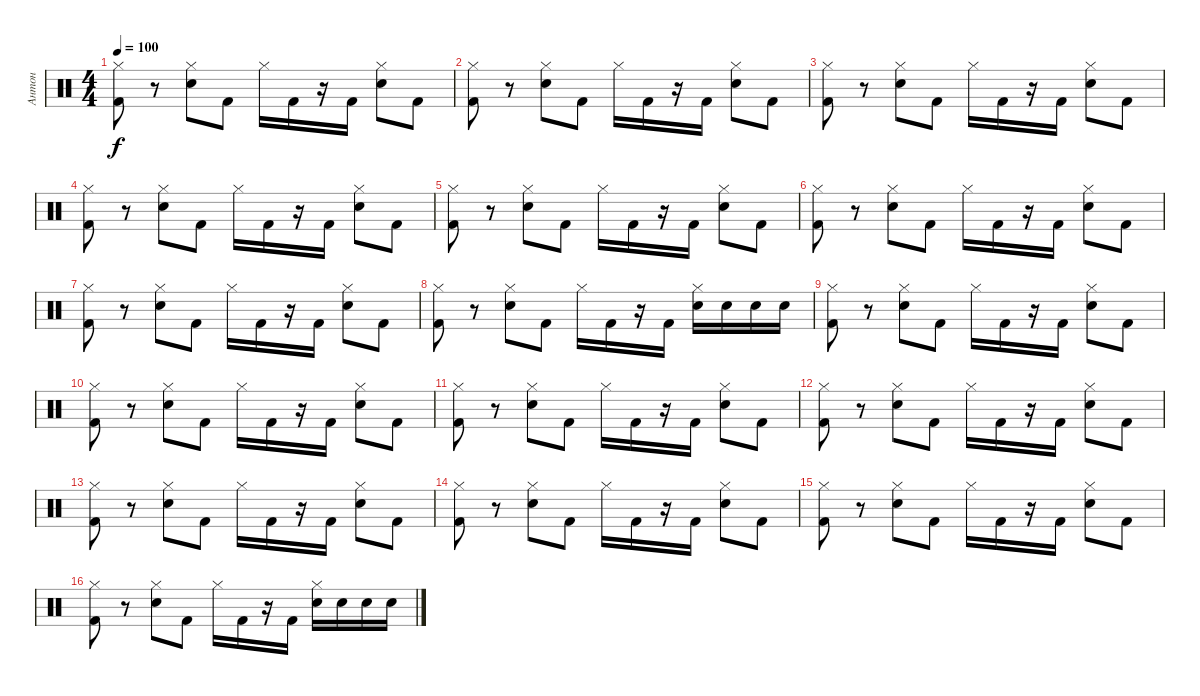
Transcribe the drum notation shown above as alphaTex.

\track ("Антон" "Антон") {instrument percussion}
\staff {score}
\articulation defaults
\ts (4 4)
\tempo 100
\clef neutral
\ks c
("Hi-Hat (closed)" "Kick (hit) 2").8{dy f} r.8 ("Hi-Hat (closed)" "Electric Snare (hit)").8 "Kick (hit) 2".8 "Hi-Hat (closed)".16 "Kick (hit) 2".16 r.16 "Kick (hit) 2".16 ("Hi-Hat (closed)" "Electric Snare (hit)").8 "Kick (hit) 2".8 |
("Hi-Hat (closed)" "Kick (hit) 2").8 r.8 ("Hi-Hat (closed)" "Electric Snare (hit)").8 "Kick (hit) 2".8 "Hi-Hat (closed)".16 "Kick (hit) 2".16 r.16 "Kick (hit) 2".16 ("Hi-Hat (closed)" "Electric Snare (hit)").8 "Kick (hit) 2".8 |
("Hi-Hat (closed)" "Kick (hit) 2").8 r.8 ("Hi-Hat (closed)" "Electric Snare (hit)").8 "Kick (hit) 2".8 "Hi-Hat (closed)".16 "Kick (hit) 2".16 r.16 "Kick (hit) 2".16 ("Hi-Hat (closed)" "Electric Snare (hit)").8 "Kick (hit) 2".8 |
("Hi-Hat (closed)" "Kick (hit) 2").8 r.8 ("Hi-Hat (closed)" "Electric Snare (hit)").8 "Kick (hit) 2".8 "Hi-Hat (closed)".16 "Kick (hit) 2".16 r.16 "Kick (hit) 2".16 ("Hi-Hat (closed)" "Electric Snare (hit)").8 "Kick (hit) 2".8 |
("Hi-Hat (closed)" "Kick (hit) 2").8 r.8 ("Hi-Hat (closed)" "Electric Snare (hit)").8 "Kick (hit) 2".8 "Hi-Hat (closed)".16 "Kick (hit) 2".16 r.16 "Kick (hit) 2".16 ("Hi-Hat (closed)" "Electric Snare (hit)").8 "Kick (hit) 2".8 |
("Hi-Hat (closed)" "Kick (hit) 2").8 r.8 ("Hi-Hat (closed)" "Electric Snare (hit)").8 "Kick (hit) 2".8 "Hi-Hat (closed)".16 "Kick (hit) 2".16 r.16 "Kick (hit) 2".16 ("Hi-Hat (closed)" "Electric Snare (hit)").8 "Kick (hit) 2".8 |
("Hi-Hat (closed)" "Kick (hit) 2").8 r.8 ("Hi-Hat (closed)" "Electric Snare (hit)").8 "Kick (hit) 2".8 "Hi-Hat (closed)".16 "Kick (hit) 2".16 r.16 "Kick (hit) 2".16 ("Hi-Hat (closed)" "Electric Snare (hit)").8 "Kick (hit) 2".8 |
("Hi-Hat (closed)" "Kick (hit) 2").8 r.8 ("Hi-Hat (closed)" "Electric Snare (hit)").8 "Kick (hit) 2".8 "Hi-Hat (closed)".16 "Kick (hit) 2".16 r.16 "Kick (hit) 2".16 ("Hi-Hat (closed)" "Electric Snare (hit)").16 "Electric Snare (hit)".16 "Electric Snare (hit)".16 "Electric Snare (hit)".16 |
("Hi-Hat (closed)" "Kick (hit) 2").8 r.8 ("Hi-Hat (closed)" "Electric Snare (hit)").8 "Kick (hit) 2".8 "Hi-Hat (closed)".16 "Kick (hit) 2".16 r.16 "Kick (hit) 2".16 ("Hi-Hat (closed)" "Electric Snare (hit)").8 "Kick (hit) 2".8 |
("Hi-Hat (closed)" "Kick (hit) 2").8 r.8 ("Hi-Hat (closed)" "Electric Snare (hit)").8 "Kick (hit) 2".8 "Hi-Hat (closed)".16 "Kick (hit) 2".16 r.16 "Kick (hit) 2".16 ("Hi-Hat (closed)" "Electric Snare (hit)").8 "Kick (hit) 2".8 |
("Hi-Hat (closed)" "Kick (hit) 2").8 r.8 ("Hi-Hat (closed)" "Electric Snare (hit)").8 "Kick (hit) 2".8 "Hi-Hat (closed)".16 "Kick (hit) 2".16 r.16 "Kick (hit) 2".16 ("Hi-Hat (closed)" "Electric Snare (hit)").8 "Kick (hit) 2".8 |
("Hi-Hat (closed)" "Kick (hit) 2").8 r.8 ("Hi-Hat (closed)" "Electric Snare (hit)").8 "Kick (hit) 2".8 "Hi-Hat (closed)".16 "Kick (hit) 2".16 r.16 "Kick (hit) 2".16 ("Hi-Hat (closed)" "Electric Snare (hit)").8 "Kick (hit) 2".8 |
("Hi-Hat (closed)" "Kick (hit) 2").8 r.8 ("Hi-Hat (closed)" "Electric Snare (hit)").8 "Kick (hit) 2".8 "Hi-Hat (closed)".16 "Kick (hit) 2".16 r.16 "Kick (hit) 2".16 ("Hi-Hat (closed)" "Electric Snare (hit)").8 "Kick (hit) 2".8 |
("Hi-Hat (closed)" "Kick (hit) 2").8 r.8 ("Hi-Hat (closed)" "Electric Snare (hit)").8 "Kick (hit) 2".8 "Hi-Hat (closed)".16 "Kick (hit) 2".16 r.16 "Kick (hit) 2".16 ("Hi-Hat (closed)" "Electric Snare (hit)").8 "Kick (hit) 2".8 |
("Hi-Hat (closed)" "Kick (hit) 2").8 r.8 ("Hi-Hat (closed)" "Electric Snare (hit)").8 "Kick (hit) 2".8 "Hi-Hat (closed)".16 "Kick (hit) 2".16 r.16 "Kick (hit) 2".16 ("Hi-Hat (closed)" "Electric Snare (hit)").8 "Kick (hit) 2".8 |
("Hi-Hat (closed)" "Kick (hit) 2").8 r.8 ("Hi-Hat (closed)" "Electric Snare (hit)").8 "Kick (hit) 2".8 "Hi-Hat (closed)".16 "Kick (hit) 2".16 r.16 "Kick (hit) 2".16 ("Hi-Hat (closed)" "Electric Snare (hit)").16 "Electric Snare (hit)".16 "Electric Snare (hit)".16 "Electric Snare (hit)".16
